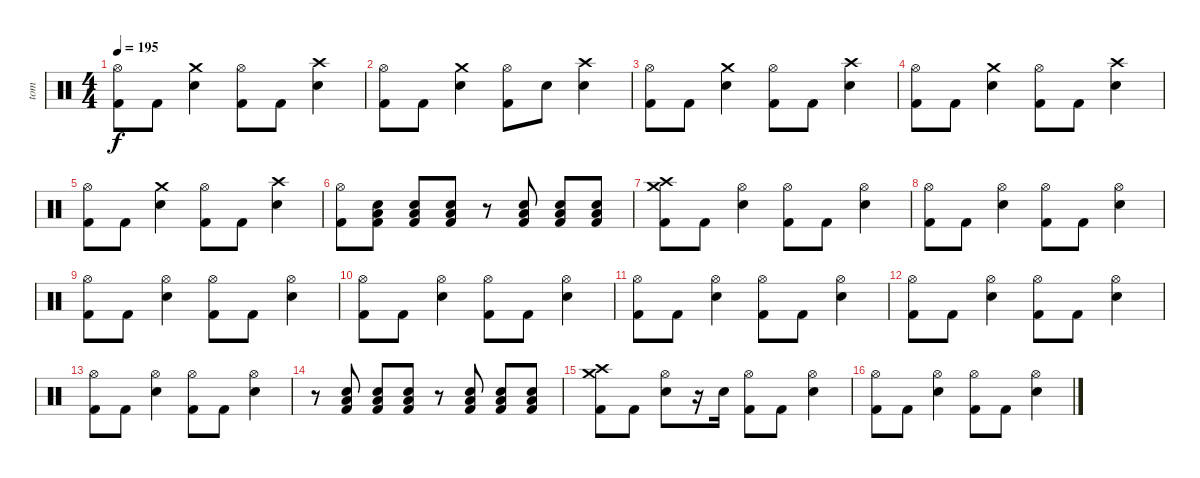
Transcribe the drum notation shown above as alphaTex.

\track ("tom" "tom") {instrument percussion}
\staff {score}
\articulation defaults
\ts (4 4)
\tempo 195
\clef neutral
\ks c
("Hi-Hat (open)" "Kick (hit) 2").8{dy f} "Kick (hit) 2".8 ("Crash medium (hit)" "Electric Snare (hit)").4 ("Hi-Hat (open)" "Kick (hit) 2").8 "Kick (hit) 2".8 ("Crash high (hit)" "Electric Snare (hit)").4 |
("Hi-Hat (open)" "Kick (hit) 2").8 "Kick (hit) 2".8 ("Crash medium (hit)" "Electric Snare (hit)").4 ("Hi-Hat (open)" "Kick (hit) 2").8 "Electric Snare (hit)".8 ("Crash high (hit)" "Electric Snare (hit)").4 |
("Hi-Hat (open)" "Kick (hit) 2").8 "Kick (hit) 2".8 ("Crash medium (hit)" "Electric Snare (hit)").4 ("Hi-Hat (open)" "Kick (hit) 2").8 "Kick (hit) 2".8 ("Crash high (hit)" "Electric Snare (hit)").4 |
("Hi-Hat (open)" "Kick (hit) 2").8 "Kick (hit) 2".8 ("Crash medium (hit)" "Electric Snare (hit)").4 ("Hi-Hat (open)" "Kick (hit) 2").8 "Kick (hit) 2".8 ("Crash high (hit)" "Electric Snare (hit)").4 |
("Hi-Hat (open)" "Kick (hit) 2").8 "Kick (hit) 2".8 ("Crash medium (hit)" "Electric Snare (hit)").4 ("Hi-Hat (open)" "Kick (hit) 2").8 "Kick (hit) 2".8 ("Crash high (hit)" "Electric Snare (hit)").4 |
("Hi-Hat (open)" "Kick (hit) 2").8 ("Electric Snare (hit)" "Low Tom (hit)" "Kick (hit) 2").8 ("Electric Snare (hit)" "Low Tom (hit)" "Kick (hit) 2").8 ("Electric Snare (hit)" "Low Tom (hit)" "Kick (hit) 2").8 r.8 ("Electric Snare (hit)" "Low Tom (hit)" "Kick (hit) 2").8 ("Electric Snare (hit)" "Low Tom (hit)" "Kick (hit) 2").8 ("Electric Snare (hit)" "Low Tom (hit)" "Kick (hit) 2").8 |
("Crash medium (hit)" "Crash high (hit)" "Kick (hit) 2").8 "Kick (hit) 2".8 ("Hi-Hat (open)" "Electric Snare (hit)").4 ("Hi-Hat (open)" "Kick (hit) 2").8 "Kick (hit) 2".8 ("Hi-Hat (open)" "Electric Snare (hit)").4 |
("Hi-Hat (open)" "Kick (hit) 2").8 "Kick (hit) 2".8 ("Hi-Hat (open)" "Electric Snare (hit)").4 ("Hi-Hat (open)" "Kick (hit) 2").8 "Kick (hit) 2".8 ("Hi-Hat (open)" "Electric Snare (hit)").4 |
("Hi-Hat (open)" "Kick (hit) 2").8 "Kick (hit) 2".8 ("Hi-Hat (open)" "Electric Snare (hit)").4 ("Hi-Hat (open)" "Kick (hit) 2").8 "Kick (hit) 2".8 ("Hi-Hat (open)" "Electric Snare (hit)").4 |
("Hi-Hat (open)" "Kick (hit) 2").8 "Kick (hit) 2".8 ("Hi-Hat (open)" "Electric Snare (hit)").4 ("Hi-Hat (open)" "Kick (hit) 2").8 "Kick (hit) 2".8 ("Hi-Hat (open)" "Electric Snare (hit)").4 |
("Hi-Hat (open)" "Kick (hit) 2").8 "Kick (hit) 2".8 ("Hi-Hat (open)" "Electric Snare (hit)").4 ("Hi-Hat (open)" "Kick (hit) 2").8 "Kick (hit) 2".8 ("Hi-Hat (open)" "Electric Snare (hit)").4 |
("Hi-Hat (open)" "Kick (hit) 2").8 "Kick (hit) 2".8 ("Hi-Hat (open)" "Electric Snare (hit)").4 ("Hi-Hat (open)" "Kick (hit) 2").8 "Kick (hit) 2".8 ("Hi-Hat (open)" "Electric Snare (hit)").4 |
("Hi-Hat (open)" "Kick (hit) 2").8 "Kick (hit) 2".8 ("Hi-Hat (open)" "Electric Snare (hit)").4 ("Hi-Hat (open)" "Kick (hit) 2").8 "Kick (hit) 2".8 ("Hi-Hat (open)" "Electric Snare (hit)").4 |
r.8 ("Electric Snare (hit)" "Low Tom (hit)" "Kick (hit) 2").8 ("Electric Snare (hit)" "Low Tom (hit)" "Kick (hit) 2").8 ("Electric Snare (hit)" "Low Tom (hit)" "Kick (hit) 2").8 r.8 ("Electric Snare (hit)" "Low Tom (hit)" "Kick (hit) 2").8 ("Electric Snare (hit)" "Low Tom (hit)" "Kick (hit) 2").8 ("Electric Snare (hit)" "Low Tom (hit)" "Kick (hit) 2").8 |
("Crash high (hit)" "Crash medium (hit)" "Kick (hit) 2").8 "Kick (hit) 2".8 ("Hi-Hat (open)" "Electric Snare (hit)").8 r.16 "Electric Snare (hit)".16 ("Hi-Hat (open)" "Kick (hit) 2").8 "Kick (hit) 2".8 ("Hi-Hat (open)" "Electric Snare (hit)").4 |
("Hi-Hat (open)" "Kick (hit) 2").8 "Kick (hit) 2".8 ("Hi-Hat (open)" "Electric Snare (hit)").4 ("Hi-Hat (open)" "Kick (hit) 2").8 "Kick (hit) 2".8 ("Hi-Hat (open)" "Electric Snare (hit)").4
